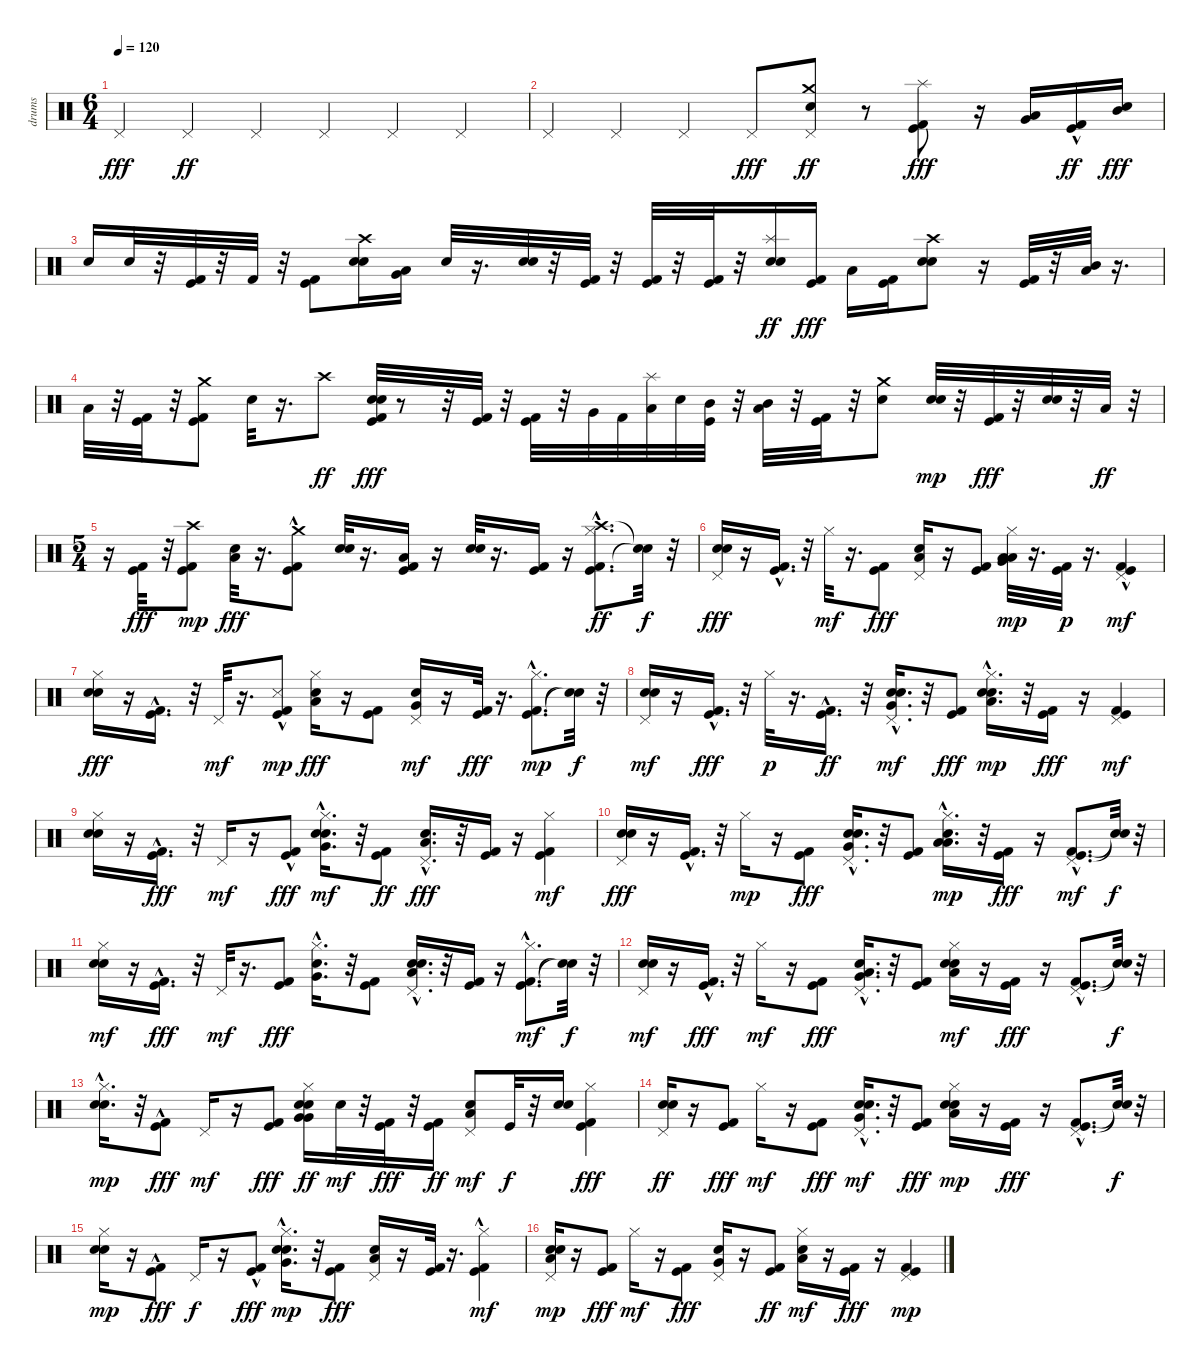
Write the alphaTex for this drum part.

\track ("drums" "drums") {instrument percussion}
\staff {score}
\articulation defaults
\ts (6 4)
\tempo 120
\clef neutral
\ks c "Pedal Hi-Hat (hit)".4{dy fff} "Pedal Hi-Hat (hit)".4{dy ff} "Pedal Hi-Hat (hit)".4 "Pedal Hi-Hat (hit)".4 "Pedal Hi-Hat (hit)".4 "Pedal Hi-Hat (hit)".4
|
"Pedal Hi-Hat (hit)".4 "Pedal Hi-Hat (hit)".4 "Pedal Hi-Hat (hit)".4 "Pedal Hi-Hat (hit)".8{dy fff} ("Crash medium (hit)" "Snare (hit) 2" "Pedal Hi-Hat (hit)").8{dy ff} r.8 ("Splash (hit)" "Kick (hit) 2" "Kick (hit)").8{dy fff} r.16 ("Low Tom (hit)" "Very Low Tom (hit)").16 ("Kick (hit)"{hac} "Kick (hit) 2").16{dy ff} ("Electric Snare (hit)" "Mid Tom (hit)").16{dy fff} |
"Snare (hit) 2".16 "Electric Snare (hit)".32 r.32 ("Kick (hit) 2" "Kick (hit)").32 r.32 "Kick (hit) 2".32 r.32 ("Kick (hit) 2" "Kick (hit)").8 ("Crash high (hit)" "Electric Snare (hit)" "Snare (hit) 2").16 ("Very Low Tom (hit)" "Low Tom (hit)").16 "Electric Snare (hit)".32 r.16{d} ("Electric Snare (hit)" "Snare (hit) 2").32 r.32 ("Kick (hit) 2" "Kick (hit)").32 r.32 ("Kick (hit) 2" "Kick (hit)").32 r.32 ("Kick (hit)" "Kick (hit) 2").32 r.32 ("Splash (hit)" "Electric Snare (hit)" "Snare (hit) 2").16{dy ff} ("Kick (hit) 2" "Kick (hit)").16{dy fff} "Low Floor Tom (hit)".16 ("Kick (hit)" "Kick (hit) 2").16 ("Crash high (hit)" "Electric Snare (hit)" "Snare (hit) 2").8 r.16 ("Kick (hit) 2" "Kick (hit)").32 r.32 ("Low Tom (hit)" "Mid Tom (hit)").32 r.16{d} |
"Low Floor Tom (hit)".32 r.32 ("Kick (hit) 2" "Kick (hit)").32 r.32 ("Crash medium (hit)" "Kick (hit)" "Kick (hit) 2").8 "Snare (hit) 2".32 r.16{d} "Crash high (hit)".8{dy ff} ("Kick (hit) 2" "Kick (hit)" "Snare (hit) 2" "Electric Snare (hit)").32{dy fff} r.8 r.32 ("Kick (hit) 2" "Kick (hit)").32 r.32 ("Kick (hit)" "Kick (hit) 2").32 r.32 "Very Low Tom (hit)".32 "Kick (hit) 2".32 ("Splash (hit)" "Low Tom (hit)").32 "Electric Snare (hit)".32 ("Mid Tom (hit)" "Kick (hit)").32 r.32 ("Mid Tom (hit)" "Low Tom (hit)").32 r.32 ("Kick (hit)" "Kick (hit) 2").32 r.32 ("Snare (hit) 2" "Crash medium (hit)").8 ("Snare (hit) 2" "Electric Snare (hit)").32{dy mp} r.32 ("Kick (hit) 2" "Kick (hit)").32{dy fff} r.32 ("Electric Snare (hit)" "Snare (hit) 2").32 r.32 "Low Floor Tom (hit)".32{dy ff} r.32 |
\ts (5 4)
r.16 ("Kick (hit) 2" "Kick (hit)").32{dy fff} r.32 ("Crash high (hit)" "Kick (hit) 2" "Kick (hit)").8{dy mp} ("Electric Snare (hit)" "Low Floor Tom (hit)").32{dy fff} r.16{d} ("Crash medium (hit)" "Kick (hit)"{hac} "Kick (hit) 2"{hac}).8 ("Snare (hit) 2" "Electric Snare (hit)").32 r.16{d} ("Low Floor Tom (hit)" "Kick (hit)" "Kick (hit) 2").16 r.16 ("Electric Snare (hit)" "Snare (hit) 2").32 r.16{d} ("Kick (hit) 2" "Kick (hit)").16 r.16 ("Crash high (hit)" "Kick (hit) 2"{hac} "Kick (hit)"{hac} "Hi-Hat (closed)").8{d dy ff} ("Snare (hit)"{t} "Snare (hit)"{t}).32{dy f} r.32 |
("Electric Snare (hit)" "Snare (hit) 2" "Pedal Hi-Hat (hit)").16{dy fff} r.16 ("Kick (hit) 2"{hac} "Kick (hit)"{hac}).16{d} r.32 "Hi-Hat (closed)".32{dy mf} r.16{d} ("Kick (hit) 2" "Kick (hit)").8{dy fff} ("Snare (hit) 2" "Low Floor Tom (hit)" "Pedal Hi-Hat (hit)").16 r.16 ("Kick (hit)" "Kick (hit) 2").8 ("Low Tom (hit)" "Very Low Tom (hit)" "Low Floor Tom (hit)" "Hi-Hat (closed)").32{dy mp} r.16{d} ("Kick (hit) 2" "Kick (hit)").32{dy p} r.16{d} ("Kick (hit) 2"{hac} "Kick (hit)" "Pedal Hi-Hat (hit)").4{dy mf} |
("Snare (hit) 2" "Electric Snare (hit)" "Hi-Hat (closed)").16{dy fff} r.16 ("Kick (hit)"{hac} "Kick (hit) 2"{hac}).16{d} r.32 "Pedal Hi-Hat (hit)".32{dy mf} r.16{d} ("Kick (hit) 2" "Kick (hit)" "Metronome (hit)"{hac}).8{dy mp} ("Hi-Hat (closed)" "Snare (hit) 2" "Low Floor Tom (hit)").16{dy fff} r.16 ("Kick (hit)" "Kick (hit) 2").8 ("Very Low Tom (hit)" "Snare (hit) 2" "Pedal Hi-Hat (hit)").16{dy mf} r.16 ("Kick (hit) 2" "Kick (hit)").32{dy fff} r.16{d} ("Kick (hit) 2"{hac} "Kick (hit)"{hac} "Hi-Hat (closed)").8{d dy mp} ("Snare (hit)"{t} "Snare (hit)"{t}).32{dy f} r.32 |
("Snare (hit) 2" "Electric Snare (hit)" "Pedal Hi-Hat (hit)").16{dy mf} r.16 ("Kick (hit)"{hac} "Kick (hit) 2"{hac}).16{d dy fff} r.32 "Hi-Hat (closed)".32{dy p} r.16{d} ("Kick (hit)"{hac} "Kick (hit) 2"{hac}).16{d dy ff} r.32 ("Electric Snare (hit)" "Very Low Tom (hit)"{hac} "Snare (hit) 2"{hac} "Pedal Hi-Hat (hit)").16{d dy mf} r.32 ("Kick (hit) 2" "Kick (hit)").8{dy fff} ("Electric Snare (hit)" "Low Tom (hit)"{hac} "Snare (hit) 2"{hac} "Hi-Hat (closed)").16{d dy mp} r.32 ("Kick (hit) 2" "Kick (hit)").16{dy fff} r.16 ("Kick (hit) 2" "Kick (hit)" "Pedal Hi-Hat (hit)").4{dy mf} |
("Electric Snare (hit)" "Snare (hit) 2" "Hi-Hat (closed)").16 r.16 ("Kick (hit) 2"{hac} "Kick (hit)"{hac}).16{d dy fff} r.32 "Pedal Hi-Hat (hit)".16{dy mf} r.16 ("Kick (hit) 2"{hac} "Kick (hit)").8{dy fff} ("Electric Snare (hit)" "Very Low Tom (hit)"{hac} "Snare (hit) 2"{hac} "Hi-Hat (closed)").16{d dy mf} r.32 ("Kick (hit) 2" "Kick (hit)").8{dy ff} ("Low Tom (hit)"{hac} "Snare (hit) 2" "Pedal Hi-Hat (hit)").16{d dy fff} r.32 ("Kick (hit)" "Kick (hit) 2").16 r.16 ("Kick (hit) 2" "Kick (hit)" "Hi-Hat (closed)").4{dy mf} |
("Snare (hit) 2" "Electric Snare (hit)" "Pedal Hi-Hat (hit)").16{dy fff} r.16 ("Kick (hit) 2"{hac} "Kick (hit)"{hac}).16{d} r.32 "Hi-Hat (closed)".16{dy mp} r.16 ("Kick (hit)" "Kick (hit) 2").8{dy fff} ("Pedal Hi-Hat (hit)" "Electric Snare (hit)" "Snare (hit) 2"{hac} "Very Low Tom (hit)"{hac}).16{d} r.32 ("Kick (hit) 2" "Kick (hit)").8 ("Low Floor Tom (hit)" "Snare (hit) 2"{hac} "Low Tom (hit)"{hac} "Hi-Hat (closed)").16{d dy mp} r.32 ("Kick (hit)" "Kick (hit) 2").16{dy fff} r.16 ("Kick (hit) 2"{hac} "Kick (hit)"{hac} "Pedal Hi-Hat (hit)").8{d dy mf} ("Snare (hit)"{t} "Snare (hit)"{t}).32{dy f} r.32 |
("Electric Snare (hit)" "Snare (hit) 2" "Hi-Hat (closed)").16{dy mf} r.16 ("Kick (hit) 2"{hac} "Kick (hit)"{hac}).16{d dy fff} r.32 "Pedal Hi-Hat (hit)".32{dy mf} r.16{d} ("Kick (hit) 2" "Kick (hit)").8{dy fff} ("Hi-Hat (closed)" "Snare (hit) 2"{hac} "Very Low Tom (hit)"{hac}).16{d} r.32 ("Kick (hit) 2" "Kick (hit)").8 ("Pedal Hi-Hat (hit)" "Electric Snare (hit)" "Low Tom (hit)"{hac} "Snare (hit) 2"{hac}).16{d} r.32 ("Kick (hit) 2" "Kick (hit)").16 r.16 ("Kick (hit) 2"{hac} "Kick (hit)"{hac} "Hi-Hat (closed)").8{d dy mf} ("Snare (hit)"{t} "Snare (hit)"{t}).32{dy f} r.32 |
("Electric Snare (hit)" "Snare (hit) 2" "Pedal Hi-Hat (hit)").16{dy mf} r.16 ("Kick (hit) 2"{hac} "Kick (hit)").16{d dy fff} r.32 "Hi-Hat (closed)".16{dy mf} r.16 ("Kick (hit)" "Kick (hit) 2").8{dy fff} ("Snare (hit) 2"{hac} "Very Low Tom (hit)"{hac} "Low Floor Tom (hit)" "Pedal Hi-Hat (hit)").16{d} r.32 ("Kick (hit) 2" "Kick (hit)").8 ("Low Tom (hit)" "Snare (hit) 2" "Electric Snare (hit)" "Hi-Hat (closed)").16{dy mf} r.16 ("Kick (hit)" "Kick (hit) 2").16{dy fff} r.16 ("Kick (hit)"{hac} "Kick (hit) 2"{hac} "Pedal Hi-Hat (hit)").8{d} ("Snare (hit)"{t} "Snare (hit)"{t}).32{dy f} r.32 |
("Snare (hit) 2" "Electric Snare (hit)"{hac} "Hi-Hat (closed)").16{d dy mp} r.32 ("Kick (hit) 2"{hac} "Kick (hit)").8{dy fff} "Pedal Hi-Hat (hit)".16{dy mf} r.16 ("Kick (hit) 2" "Kick (hit)").8{dy fff} ("Hi-Hat (closed)" "Electric Snare (hit)" "Very Low Tom (hit)" "Snare (hit) 2" "Very Low Tom (hit)").16{dy ff} "Snare (hit) 2".32{dy mf} r.32 ("Kick (hit) 2" "Kick (hit)").32{dy fff} r.32 ("Kick (hit)" "Kick (hit) 2").16{dy ff} ("Snare (hit) 2" "Low Tom (hit)" "Pedal Hi-Hat (hit)").8{dy mf} "Kick (hit)".32{dy f} r.32 ("Snare (hit) 2" "Electric Snare (hit)").16 ("Hi-Hat (closed)" "Kick (hit) 2" "Kick (hit)").4{dy fff} |
("Electric Snare (hit)" "Snare (hit) 2" "Pedal Hi-Hat (hit)").16{dy ff} r.16 ("Kick (hit) 2" "Kick (hit)").8{dy fff} "Hi-Hat (closed)".16{dy mf} r.16 ("Kick (hit)" "Kick (hit) 2").8{dy fff} ("Electric Snare (hit)" "Very Low Tom (hit)"{hac} "Snare (hit) 2"{hac} "Pedal Hi-Hat (hit)").16{d dy mf} r.32 ("Kick (hit) 2" "Kick (hit)").8{dy fff} ("Electric Snare (hit)" "Low Tom (hit)" "Snare (hit) 2" "Hi-Hat (closed)").16{dy mp} r.16 ("Kick (hit)" "Kick (hit) 2").16{dy fff} r.16 ("Kick (hit) 2"{hac} "Kick (hit)"{hac} "Pedal Hi-Hat (hit)").8{d} ("Snare (hit)"{t} "Snare (hit)"{t}).32{dy f} r.32 |
("Electric Snare (hit)" "Snare (hit) 2" "Hi-Hat (closed)").16{dy mp} r.16 ("Kick (hit) 2"{hac} "Kick (hit)").8{dy fff} "Pedal Hi-Hat (hit)".16{dy f} r.16 ("Kick (hit) 2"{hac} "Kick (hit)").8{dy fff} ("Electric Snare (hit)" "Very Low Tom (hit)"{hac} "Snare (hit) 2"{hac} "Hi-Hat (closed)").16{d dy mp} r.32 ("Kick (hit)" "Kick (hit) 2").8{dy fff} ("Low Tom (hit)" "Snare (hit) 2" "Pedal Hi-Hat (hit)").16 r.16 ("Kick (hit) 2" "Kick (hit)").32 r.16{d} ("Kick (hit) 2"{hac} "Kick (hit)" "Hi-Hat (closed)").4{dy mf} |
("Low Floor Tom (hit)" "Electric Snare (hit)" "Snare (hit) 2" "Pedal Hi-Hat (hit)").16{dy mp} r.16 ("Kick (hit) 2" "Kick (hit)").8{dy fff} "Hi-Hat (closed)".16{dy mf} r.16 ("Kick (hit) 2" "Kick (hit)").8{dy fff} ("Snare (hit) 2" "Very Low Tom (hit)" "Pedal Hi-Hat (hit)").16 r.16 ("Kick (hit)" "Kick (hit) 2").8{dy ff} ("Low Tom (hit)" "Snare (hit) 2" "Hi-Hat (closed)").16{dy mf} r.16 ("Kick (hit)" "Kick (hit) 2").16{dy fff} r.16 ("Kick (hit) 2" "Kick (hit)" "Pedal Hi-Hat (hit)").4{dy mp}
